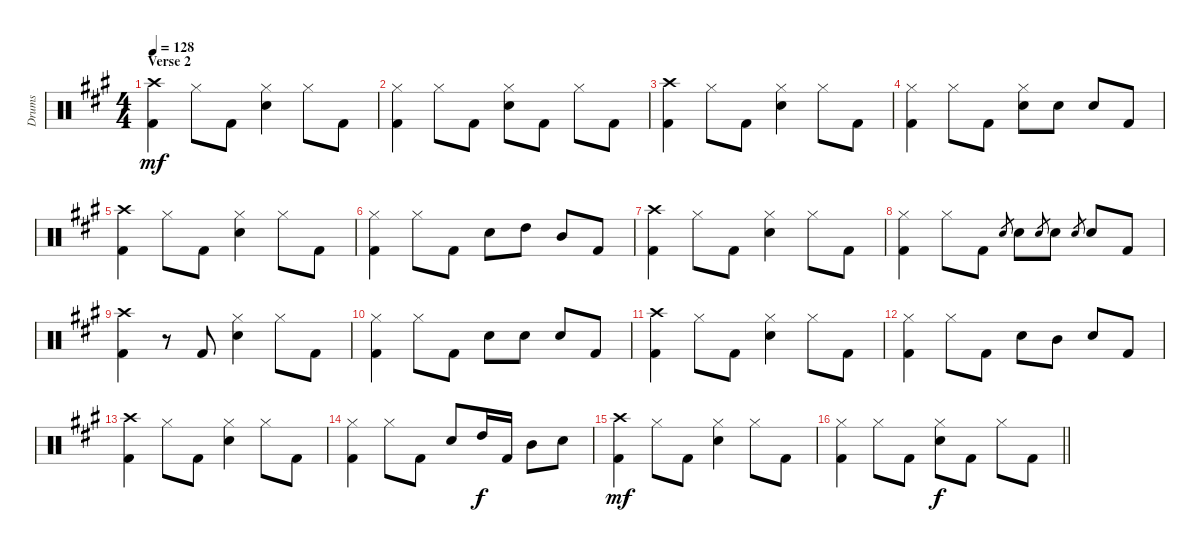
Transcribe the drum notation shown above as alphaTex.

\track ("Drums" "Drums") {instrument percussion}
\staff {score}
\articulation defaults
\ts (4 4)
\section ("" "Verse 2")
\tempo 128
\clef neutral
\ks f#minor
("Crash high (hit)" "Kick (hit) 2").4{dy mf} "Hi-Hat (closed)".8 "Kick (hit) 2".8 ("Hi-Hat (closed)" "Electric Snare (hit)").4 "Hi-Hat (closed)".8 "Kick (hit) 2".8 |
("Hi-Hat (closed)" "Kick (hit) 2").4 "Hi-Hat (closed)".8 "Kick (hit) 2".8 ("Hi-Hat (closed)" "Electric Snare (hit)").8 "Kick (hit) 2".8 "Hi-Hat (closed)".8 "Kick (hit) 2".8 |
("Crash high (hit)" "Kick (hit) 2").4 "Hi-Hat (closed)".8 "Kick (hit) 2".8 ("Hi-Hat (closed)" "Electric Snare (hit)").4 "Hi-Hat (closed)".8 "Kick (hit) 2".8 |
("Hi-Hat (closed)" "Kick (hit) 2").4 "Hi-Hat (closed)".8 "Kick (hit) 2".8 ("Hi-Hat (closed)" "Electric Snare (hit)").8 "Electric Snare (hit)".8 "Electric Snare (hit)".8 "Kick (hit) 2".8 |
("Crash high (hit)" "Kick (hit) 2").4 "Hi-Hat (closed)".8 "Kick (hit) 2".8 ("Hi-Hat (closed)" "Electric Snare (hit)").4 "Hi-Hat (closed)".8 "Kick (hit) 2".8 |
("Hi-Hat (closed)" "Kick (hit) 2").4 "Hi-Hat (closed)".8 "Kick (hit) 2".8 "Electric Snare (hit)".8 "High Tom (hit)".8 "Mid Tom (hit)".8 "Kick (hit) 2".8 |
("Crash high (hit)" "Kick (hit) 2").4 "Hi-Hat (closed)".8 "Kick (hit) 2".8 ("Hi-Hat (closed)" "Electric Snare (hit)").4 "Hi-Hat (closed)".8 "Kick (hit) 2".8 |
("Hi-Hat (closed)" "Kick (hit) 2").4 "Hi-Hat (closed)".8 "Kick (hit) 2".8 "Electric Snare (hit)".8{gr} "Electric Snare (hit)".8 "Electric Snare (hit)".8{gr} "Electric Snare (hit)".8 "Electric Snare (hit)".8{gr} "Electric Snare (hit)".8 "Kick (hit) 2".8 |
("Crash high (hit)" "Kick (hit) 2").4 r.8 "Kick (hit) 2".8 ("Hi-Hat (closed)" "Electric Snare (hit)").4 "Hi-Hat (closed)".8 "Kick (hit) 2".8 |
("Hi-Hat (closed)" "Kick (hit) 2").4 "Hi-Hat (closed)".8 "Kick (hit) 2".8 "Electric Snare (hit)".8 "Electric Snare (hit)".8 "Electric Snare (hit)".8 "Kick (hit) 2".8 |
("Crash high (hit)" "Kick (hit) 2").4 "Hi-Hat (closed)".8 "Kick (hit) 2".8 ("Hi-Hat (closed)" "Electric Snare (hit)").4 "Hi-Hat (closed)".8 "Kick (hit) 2".8 |
("Hi-Hat (closed)" "Kick (hit) 2").4 "Hi-Hat (closed)".8 "Kick (hit) 2".8 "Electric Snare (hit)".8 "Mid Tom (hit)".8 "Electric Snare (hit)".8 "Kick (hit) 2".8 |
("Crash high (hit)" "Kick (hit) 2").4 "Hi-Hat (closed)".8 "Kick (hit) 2".8 ("Hi-Hat (closed)" "Electric Snare (hit)").4 "Hi-Hat (closed)".8 "Kick (hit) 2".8 |
("Hi-Hat (closed)" "Kick (hit) 2").4 "Hi-Hat (closed)".8 "Kick (hit) 2".8 "Electric Snare (hit)".8 "High Tom (hit)".16{dy f} "Kick (hit) 2".16 "Mid Tom (hit)".8 "Electric Snare (hit)".8 |
("Crash high (hit)" "Kick (hit) 2").4{dy mf} "Hi-Hat (closed)".8 "Kick (hit) 2".8 ("Hi-Hat (closed)" "Electric Snare (hit)").4 "Hi-Hat (closed)".8 "Kick (hit) 2".8 |
\barLineRight lightlight
("Hi-Hat (closed)" "Kick (hit) 2").4 "Hi-Hat (closed)".8 "Kick (hit) 2".8 ("Hi-Hat (closed)" "Electric Snare (hit)").8{dy f} "Kick (hit) 2".8 "Hi-Hat (closed)".8 "Kick (hit) 2".8
